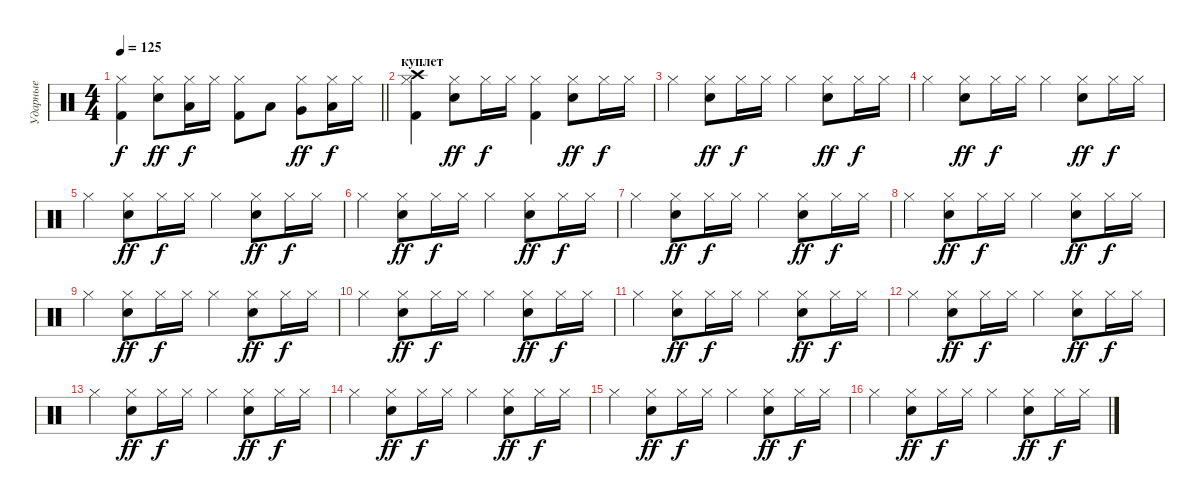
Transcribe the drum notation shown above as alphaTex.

\track ("Ударные" "Ударные") {instrument percussion}
\staff {score}
\articulation defaults
\ts (4 4)
\tempo 125
\clef neutral
\barLineRight lightlight
\ks c
("Hi-Hat (closed)" "Kick (hit) 2").4{dy f} ("Hi-Hat (closed)" "Electric Snare (hit)").8{dy ff} ("Hi-Hat (closed)" "Low Tom (hit)").16{dy f} "Hi-Hat (closed)".16 ("Hi-Hat (closed)" "Kick (hit) 2").8 "Low Tom (hit)".8 ("Hi-Hat (closed)" "Very Low Tom (hit)").8{dy ff} ("Hi-Hat (closed)" "Low Tom (hit)").16{dy f} "Hi-Hat (closed)".16 |
\section ("" "куплет")
("Crash high (hit)" "Hi-Hat (closed)" "Kick (hit) 2").4 ("Hi-Hat (closed)" "Electric Snare (hit)").8{dy ff} "Hi-Hat (closed)".16{dy f} "Hi-Hat (closed)".16 ("Hi-Hat (closed)" "Kick (hit) 2").4 ("Hi-Hat (closed)" "Electric Snare (hit)").8{dy ff} "Hi-Hat (closed)".16{dy f} "Hi-Hat (closed)".16 |
"Hi-Hat (closed)".4 ("Hi-Hat (closed)" "Electric Snare (hit)").8{dy ff} "Hi-Hat (closed)".16{dy f} "Hi-Hat (closed)".16 "Hi-Hat (closed)".4 ("Hi-Hat (closed)" "Electric Snare (hit)").8{dy ff} "Hi-Hat (closed)".16{dy f} "Hi-Hat (closed)".16 |
"Hi-Hat (closed)".4 ("Hi-Hat (closed)" "Electric Snare (hit)").8{dy ff} "Hi-Hat (closed)".16{dy f} "Hi-Hat (closed)".16 "Hi-Hat (closed)".4 ("Hi-Hat (closed)" "Electric Snare (hit)").8{dy ff} "Hi-Hat (closed)".16{dy f} "Hi-Hat (closed)".16 |
"Hi-Hat (closed)".4 ("Hi-Hat (closed)" "Electric Snare (hit)").8{dy ff} "Hi-Hat (closed)".16{dy f} "Hi-Hat (closed)".16 "Hi-Hat (closed)".4 ("Hi-Hat (closed)" "Electric Snare (hit)").8{dy ff} "Hi-Hat (closed)".16{dy f} "Hi-Hat (closed)".16 |
"Hi-Hat (closed)".4 ("Hi-Hat (closed)" "Electric Snare (hit)").8{dy ff} "Hi-Hat (closed)".16{dy f} "Hi-Hat (closed)".16 "Hi-Hat (closed)".4 ("Hi-Hat (closed)" "Electric Snare (hit)").8{dy ff} "Hi-Hat (closed)".16{dy f} "Hi-Hat (closed)".16 |
"Hi-Hat (closed)".4 ("Hi-Hat (closed)" "Electric Snare (hit)").8{dy ff} "Hi-Hat (closed)".16{dy f} "Hi-Hat (closed)".16 "Hi-Hat (closed)".4 ("Hi-Hat (closed)" "Electric Snare (hit)").8{dy ff} "Hi-Hat (closed)".16{dy f} "Hi-Hat (closed)".16 |
"Hi-Hat (closed)".4 ("Hi-Hat (closed)" "Electric Snare (hit)").8{dy ff} "Hi-Hat (closed)".16{dy f} "Hi-Hat (closed)".16 "Hi-Hat (closed)".4 ("Hi-Hat (closed)" "Electric Snare (hit)").8{dy ff} "Hi-Hat (closed)".16{dy f} "Hi-Hat (closed)".16 |
"Hi-Hat (closed)".4 ("Hi-Hat (closed)" "Electric Snare (hit)").8{dy ff} "Hi-Hat (closed)".16{dy f} "Hi-Hat (closed)".16 "Hi-Hat (closed)".4 ("Hi-Hat (closed)" "Electric Snare (hit)").8{dy ff} "Hi-Hat (closed)".16{dy f} "Hi-Hat (closed)".16 |
"Hi-Hat (closed)".4 ("Hi-Hat (closed)" "Electric Snare (hit)").8{dy ff} "Hi-Hat (closed)".16{dy f} "Hi-Hat (closed)".16 "Hi-Hat (closed)".4 ("Hi-Hat (closed)" "Electric Snare (hit)").8{dy ff} "Hi-Hat (closed)".16{dy f} "Hi-Hat (closed)".16 |
"Hi-Hat (closed)".4 ("Hi-Hat (closed)" "Electric Snare (hit)").8{dy ff} "Hi-Hat (closed)".16{dy f} "Hi-Hat (closed)".16 "Hi-Hat (closed)".4 ("Hi-Hat (closed)" "Electric Snare (hit)").8{dy ff} "Hi-Hat (closed)".16{dy f} "Hi-Hat (closed)".16 |
"Hi-Hat (closed)".4 ("Hi-Hat (closed)" "Electric Snare (hit)").8{dy ff} "Hi-Hat (closed)".16{dy f} "Hi-Hat (closed)".16 "Hi-Hat (closed)".4 ("Hi-Hat (closed)" "Electric Snare (hit)").8{dy ff} "Hi-Hat (closed)".16{dy f} "Hi-Hat (closed)".16 |
"Hi-Hat (closed)".4 ("Hi-Hat (closed)" "Electric Snare (hit)").8{dy ff} "Hi-Hat (closed)".16{dy f} "Hi-Hat (closed)".16 "Hi-Hat (closed)".4 ("Hi-Hat (closed)" "Electric Snare (hit)").8{dy ff} "Hi-Hat (closed)".16{dy f} "Hi-Hat (closed)".16 |
"Hi-Hat (closed)".4 ("Hi-Hat (closed)" "Electric Snare (hit)").8{dy ff} "Hi-Hat (closed)".16{dy f} "Hi-Hat (closed)".16 "Hi-Hat (closed)".4 ("Hi-Hat (closed)" "Electric Snare (hit)").8{dy ff} "Hi-Hat (closed)".16{dy f} "Hi-Hat (closed)".16 |
"Hi-Hat (closed)".4 ("Hi-Hat (closed)" "Electric Snare (hit)").8{dy ff} "Hi-Hat (closed)".16{dy f} "Hi-Hat (closed)".16 "Hi-Hat (closed)".4 ("Hi-Hat (closed)" "Electric Snare (hit)").8{dy ff} "Hi-Hat (closed)".16{dy f} "Hi-Hat (closed)".16 |
"Hi-Hat (closed)".4 ("Hi-Hat (closed)" "Electric Snare (hit)").8{dy ff} "Hi-Hat (closed)".16{dy f} "Hi-Hat (closed)".16 "Hi-Hat (closed)".4 ("Hi-Hat (closed)" "Electric Snare (hit)").8{dy ff} "Hi-Hat (closed)".16{dy f} "Hi-Hat (closed)".16
